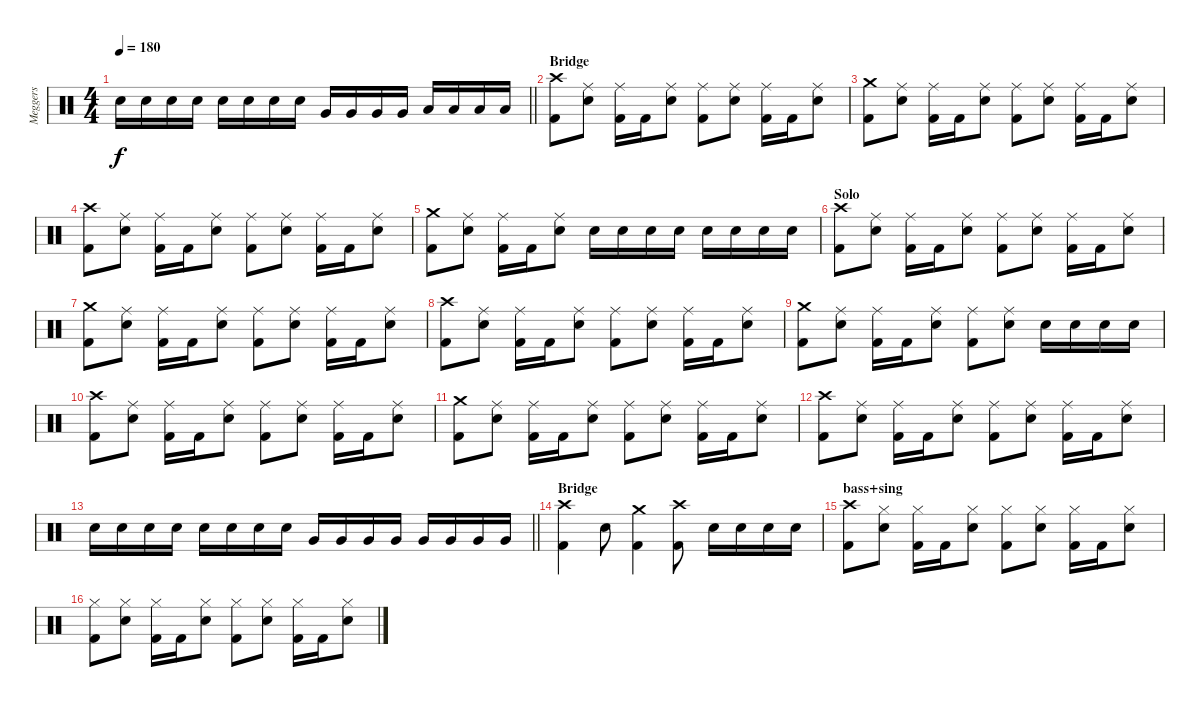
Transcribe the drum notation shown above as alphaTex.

\track ("Meggers" "Meggers") {instrument percussion}
\staff {score}
\articulation defaults
\ts (4 4)
\tempo 180
\clef neutral
\barLineRight lightlight
\ks c "Snare (hit) 2".16{dy f} "Snare (hit) 2".16 "Snare (hit) 2".16 "Snare (hit) 2".16 "Snare (hit) 2".16 "Snare (hit) 2".16 "Snare (hit) 2".16 "Snare (hit) 2".16 "Very Low Tom (hit)".16 "Very Low Tom (hit)".16 "Very Low Tom (hit)".16 "Very Low Tom (hit)".16 "Low Floor Tom (hit)".16 "Low Floor Tom (hit)".16 "Low Floor Tom (hit)".16 "Low Floor Tom (hit)".16
|
\section ("" "Bridge")
("Crash high (hit)" "Kick (hit) 2").8 ("Ride (middle)" "Snare (hit) 2").8 ("Ride (middle)" "Kick (hit) 2").16 "Kick (hit) 2".16 ("Ride (middle)" "Snare (hit) 2").8 ("Ride (middle)" "Kick (hit) 2").8 ("Ride (middle)" "Snare (hit) 2").8 ("Ride (middle)" "Kick (hit) 2").16 "Kick (hit) 2".16 ("Ride (middle)" "Snare (hit) 2").8 |
("Crash medium (hit)" "Kick (hit) 2").8 ("Ride (middle)" "Snare (hit) 2").8 ("Ride (middle)" "Kick (hit) 2").16 "Kick (hit) 2".16 ("Ride (middle)" "Snare (hit) 2").8 ("Ride (middle)" "Kick (hit) 2").8 ("Ride (middle)" "Snare (hit) 2").8 ("Ride (middle)" "Kick (hit) 2").16 "Kick (hit) 2".16 ("Ride (middle)" "Snare (hit) 2").8 |
("Crash high (hit)" "Kick (hit) 2").8 ("Ride (middle)" "Snare (hit) 2").8 ("Ride (middle)" "Kick (hit) 2").16 "Kick (hit) 2".16 ("Ride (middle)" "Snare (hit) 2").8 ("Ride (middle)" "Kick (hit) 2").8 ("Ride (middle)" "Snare (hit) 2").8 ("Ride (middle)" "Kick (hit) 2").16 "Kick (hit) 2".16 ("Ride (middle)" "Snare (hit) 2").8 |
("Crash medium (hit)" "Kick (hit) 2").8 ("Ride (middle)" "Snare (hit) 2").8 ("Ride (middle)" "Kick (hit) 2").16 "Kick (hit) 2".16 ("Ride (middle)" "Snare (hit) 2").8 "Snare (hit) 2".16 "Snare (hit) 2".16 "Snare (hit) 2".16 "Snare (hit) 2".16 "Snare (hit) 2".16 "Snare (hit) 2".16 "Snare (hit) 2".16 "Snare (hit) 2".16 |
\section ("" "Solo")
("Crash high (hit)" "Kick (hit) 2").8 ("Ride (middle)" "Snare (hit) 2").8 ("Ride (middle)" "Kick (hit) 2").16 "Kick (hit) 2".16 ("Ride (middle)" "Snare (hit) 2").8 ("Ride (middle)" "Kick (hit) 2").8 ("Ride (middle)" "Snare (hit) 2").8 ("Ride (middle)" "Kick (hit) 2").16 "Kick (hit) 2".16 ("Ride (middle)" "Snare (hit) 2").8 |
("Crash medium (hit)" "Kick (hit) 2").8 ("Ride (middle)" "Snare (hit) 2").8 ("Ride (middle)" "Kick (hit) 2").16 "Kick (hit) 2".16 ("Ride (middle)" "Snare (hit) 2").8 ("Ride (middle)" "Kick (hit) 2").8 ("Ride (middle)" "Snare (hit) 2").8 ("Ride (middle)" "Kick (hit) 2").16 "Kick (hit) 2".16 ("Ride (middle)" "Snare (hit) 2").8 |
("Crash high (hit)" "Kick (hit) 2").8 ("Ride (middle)" "Snare (hit) 2").8 ("Ride (middle)" "Kick (hit) 2").16 "Kick (hit) 2".16 ("Ride (middle)" "Snare (hit) 2").8 ("Ride (middle)" "Kick (hit) 2").8 ("Ride (middle)" "Snare (hit) 2").8 ("Ride (middle)" "Kick (hit) 2").16 "Kick (hit) 2".16 ("Ride (middle)" "Snare (hit) 2").8 |
("Crash medium (hit)" "Kick (hit) 2").8 ("Ride (middle)" "Snare (hit) 2").8 ("Ride (middle)" "Kick (hit) 2").16 "Kick (hit) 2".16 ("Ride (middle)" "Snare (hit) 2").8 ("Ride (middle)" "Kick (hit) 2").8 ("Ride (middle)" "Snare (hit) 2").8 "Snare (hit) 2".16 "Snare (hit) 2".16 "Snare (hit) 2".16 "Snare (hit) 2".16 |
("Crash high (hit)" "Kick (hit) 2").8 ("Ride (middle)" "Snare (hit) 2").8 ("Ride (middle)" "Kick (hit) 2").16 "Kick (hit) 2".16 ("Ride (middle)" "Snare (hit) 2").8 ("Ride (middle)" "Kick (hit) 2").8 ("Ride (middle)" "Snare (hit) 2").8 ("Ride (middle)" "Kick (hit) 2").16 "Kick (hit) 2".16 ("Ride (middle)" "Snare (hit) 2").8 |
("Crash medium (hit)" "Kick (hit) 2").8 ("Ride (middle)" "Snare (hit) 2").8 ("Ride (middle)" "Kick (hit) 2").16 "Kick (hit) 2".16 ("Ride (middle)" "Snare (hit) 2").8 ("Ride (middle)" "Kick (hit) 2").8 ("Ride (middle)" "Snare (hit) 2").8 ("Ride (middle)" "Kick (hit) 2").16 "Kick (hit) 2".16 ("Ride (middle)" "Snare (hit) 2").8 |
("Crash high (hit)" "Kick (hit) 2").8 ("Ride (middle)" "Snare (hit) 2").8 ("Ride (middle)" "Kick (hit) 2").16 "Kick (hit) 2".16 ("Ride (middle)" "Snare (hit) 2").8 ("Ride (middle)" "Kick (hit) 2").8 ("Ride (middle)" "Snare (hit) 2").8 ("Ride (middle)" "Kick (hit) 2").16 "Kick (hit) 2".16 ("Ride (middle)" "Snare (hit) 2").8 |
\barLineRight lightlight "Snare (hit) 2".16 "Snare (hit) 2".16 "Snare (hit) 2".16 "Snare (hit) 2".16 "Snare (hit) 2".16 "Snare (hit) 2".16 "Snare (hit) 2".16 "Snare (hit) 2".16 "Very Low Tom (hit)".16 "Very Low Tom (hit)".16 "Very Low Tom (hit)".16 "Very Low Tom (hit)".16 "Very Low Tom (hit)".16 "Very Low Tom (hit)".16 "Very Low Tom (hit)".16 "Very Low Tom (hit)".16
|
\section ("" "Bridge")
("Crash high (hit)" "Kick (hit) 2").4 "Snare (hit) 2".8 ("Crash medium (hit)" "Kick (hit) 2").4 ("Crash high (hit)" "Kick (hit) 2").8 "Snare (hit) 2".16 "Snare (hit) 2".16 "Snare (hit) 2".16 "Snare (hit) 2".16 |
\section ("" "bass+sing")
("Crash high (hit)" "Kick (hit) 2").8 ("Hi-Hat (closed)" "Snare (hit) 2").8 ("Hi-Hat (closed)" "Kick (hit) 2").16 "Kick (hit) 2".16 ("Hi-Hat (closed)" "Snare (hit) 2").8 ("Hi-Hat (closed)" "Kick (hit) 2").8 ("Hi-Hat (closed)" "Snare (hit) 2").8 ("Hi-Hat (closed)" "Kick (hit) 2").16 "Kick (hit) 2".16 ("Hi-Hat (closed)" "Snare (hit) 2").8 |
("Hi-Hat (closed)" "Kick (hit) 2").8 ("Hi-Hat (closed)" "Snare (hit) 2").8 ("Hi-Hat (closed)" "Kick (hit) 2").16 "Kick (hit) 2".16 ("Hi-Hat (closed)" "Snare (hit) 2").8 ("Hi-Hat (closed)" "Kick (hit) 2").8 ("Hi-Hat (closed)" "Snare (hit) 2").8 ("Hi-Hat (closed)" "Kick (hit) 2").16 "Kick (hit) 2".16 ("Hi-Hat (closed)" "Snare (hit) 2").8
